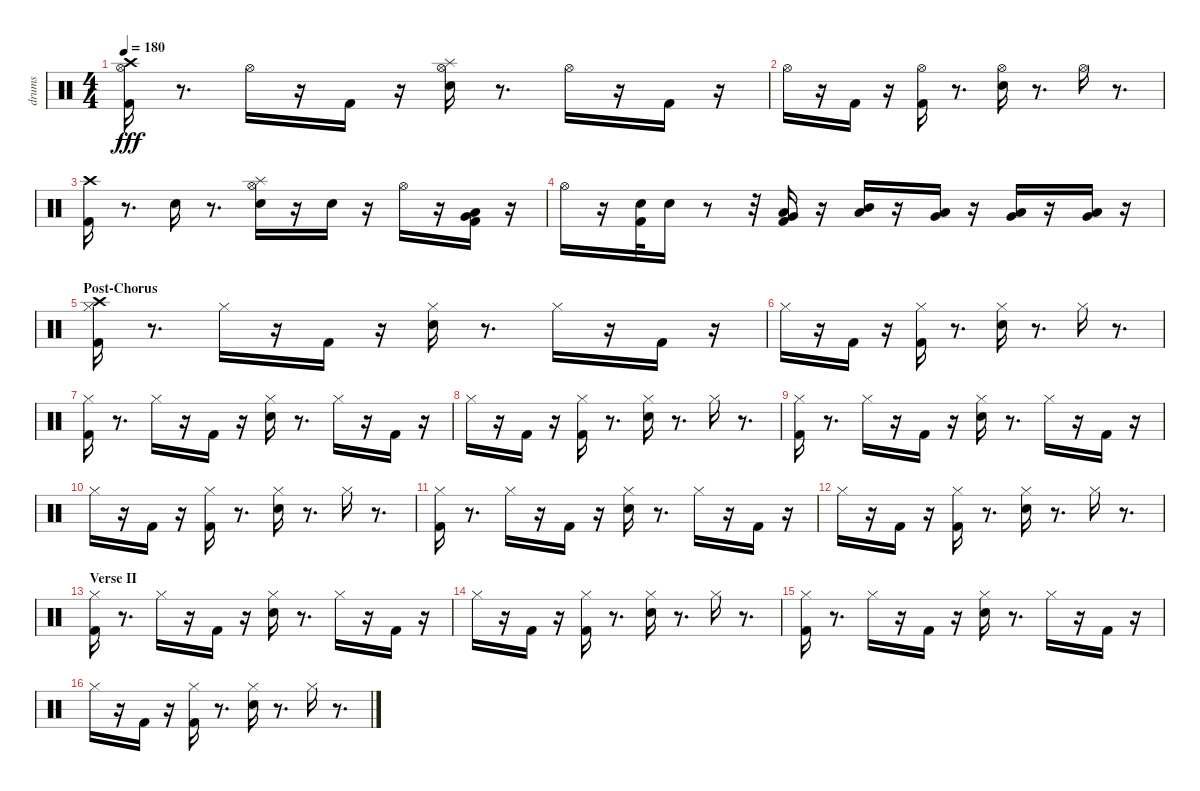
\track ("drums" "drums") {instrument percussion}
\staff {score}
\articulation defaults
\ts (4 4)
\tempo 180
\clef neutral
\ks c
("Crash high (hit)" "Kick (hit) 2" "Hi-Hat (open)").16{dy fff} r.8{d} "Hi-Hat (open)".16 r.16 "Kick (hit) 2".16 r.16 ("Splash (hit)" "Electric Snare (hit)" "Hi-Hat (open)").16 r.8{d} "Hi-Hat (open)".16 r.16 "Kick (hit) 2".16 r.16 |
"Hi-Hat (open)".16 r.16 "Kick (hit) 2".16 r.16 ("Hi-Hat (open)" "Kick (hit) 2").16 r.8{d} ("Hi-Hat (open)" "Electric Snare (hit)").16 r.8{d} "Hi-Hat (open)".16 r.8{d} |
("Crash high (hit)" "Kick (hit) 2").16 r.8{d} "Electric Snare (hit)".16 r.8{d} ("Splash (hit)" "Hi-Hat (open)" "Electric Snare (hit)").16 r.16 "Electric Snare (hit)".16 r.16 "Hi-Hat (open)".16 r.16 ("Very Low Tom (hit)" "Low Floor Tom (hit)" "Kick (hit) 2").16 r.16 |
"Hi-Hat (open)".16 r.16 ("Electric Snare (hit)" "Kick (hit) 2").32 "Electric Snare (hit)".16 r.8 r.32 ("Low Tom (hit)" "Very Low Tom (hit)" "Kick (hit) 2").16 r.16 ("Low Tom (hit)" "Mid Tom (hit)").16 r.16 ("Very Low Tom (hit)" "Low Tom (hit)").16 r.16 ("Low Tom (hit)" "Very Low Tom (hit)").16 r.16 ("Very Low Tom (hit)" "Low Floor Tom (hit)").16 r.16 |
\section ("" "Post-Chorus")
("Crash high (hit)" "Kick (hit) 2" "Hi-Hat (closed)").16 r.8{d} "Hi-Hat (closed)".16 r.16 "Kick (hit) 2".16 r.16 ("Electric Snare (hit)" "Hi-Hat (closed)").16 r.8{d} "Hi-Hat (closed)".16 r.16 "Kick (hit) 2".16 r.16 |
"Hi-Hat (closed)".16 r.16 "Kick (hit) 2".16 r.16 ("Hi-Hat (closed)" "Kick (hit) 2").16 r.8{d} ("Hi-Hat (closed)" "Electric Snare (hit)").16 r.8{d} "Hi-Hat (closed)".16 r.8{d} |
("Kick (hit) 2" "Hi-Hat (closed)").16 r.8{d} "Hi-Hat (closed)".16 r.16 "Kick (hit) 2".16 r.16 ("Electric Snare (hit)" "Hi-Hat (closed)").16 r.8{d} "Hi-Hat (closed)".16 r.16 "Kick (hit) 2".16 r.16 |
"Hi-Hat (closed)".16 r.16 "Kick (hit) 2".16 r.16 ("Hi-Hat (closed)" "Kick (hit) 2").16 r.8{d} ("Hi-Hat (closed)" "Electric Snare (hit)").16 r.8{d} "Hi-Hat (closed)".16 r.8{d} |
("Kick (hit) 2" "Hi-Hat (closed)").16 r.8{d} "Hi-Hat (closed)".16 r.16 "Kick (hit) 2".16 r.16 ("Electric Snare (hit)" "Hi-Hat (closed)").16 r.8{d} "Hi-Hat (closed)".16 r.16 "Kick (hit) 2".16 r.16 |
"Hi-Hat (closed)".16 r.16 "Kick (hit) 2".16 r.16 ("Hi-Hat (closed)" "Kick (hit) 2").16 r.8{d} ("Hi-Hat (closed)" "Electric Snare (hit)").16 r.8{d} "Hi-Hat (closed)".16 r.8{d} |
("Kick (hit) 2" "Hi-Hat (closed)").16 r.8{d} "Hi-Hat (closed)".16 r.16 "Kick (hit) 2".16 r.16 ("Electric Snare (hit)" "Hi-Hat (closed)").16 r.8{d} "Hi-Hat (closed)".16 r.16 "Kick (hit) 2".16 r.16 |
"Hi-Hat (closed)".16 r.16 "Kick (hit) 2".16 r.16 ("Hi-Hat (closed)" "Kick (hit) 2").16 r.8{d} ("Hi-Hat (closed)" "Electric Snare (hit)").16 r.8{d} "Hi-Hat (closed)".16 r.8{d} |
\section ("" "Verse II")
("Kick (hit) 2" "Hi-Hat (closed)").16 r.8{d} "Hi-Hat (closed)".16 r.16 "Kick (hit) 2".16 r.16 ("Electric Snare (hit)" "Hi-Hat (closed)").16 r.8{d} "Hi-Hat (closed)".16 r.16 "Kick (hit) 2".16 r.16 |
"Hi-Hat (closed)".16 r.16 "Kick (hit) 2".16 r.16 ("Hi-Hat (closed)" "Kick (hit) 2").16 r.8{d} ("Hi-Hat (closed)" "Electric Snare (hit)").16 r.8{d} "Hi-Hat (closed)".16 r.8{d} |
("Kick (hit) 2" "Hi-Hat (closed)").16 r.8{d} "Hi-Hat (closed)".16 r.16 "Kick (hit) 2".16 r.16 ("Electric Snare (hit)" "Hi-Hat (closed)").16 r.8{d} "Hi-Hat (closed)".16 r.16 "Kick (hit) 2".16 r.16 |
"Hi-Hat (closed)".16 r.16 "Kick (hit) 2".16 r.16 ("Hi-Hat (closed)" "Kick (hit) 2").16 r.8{d} ("Hi-Hat (closed)" "Electric Snare (hit)").16 r.8{d} "Hi-Hat (closed)".16 r.8{d}
